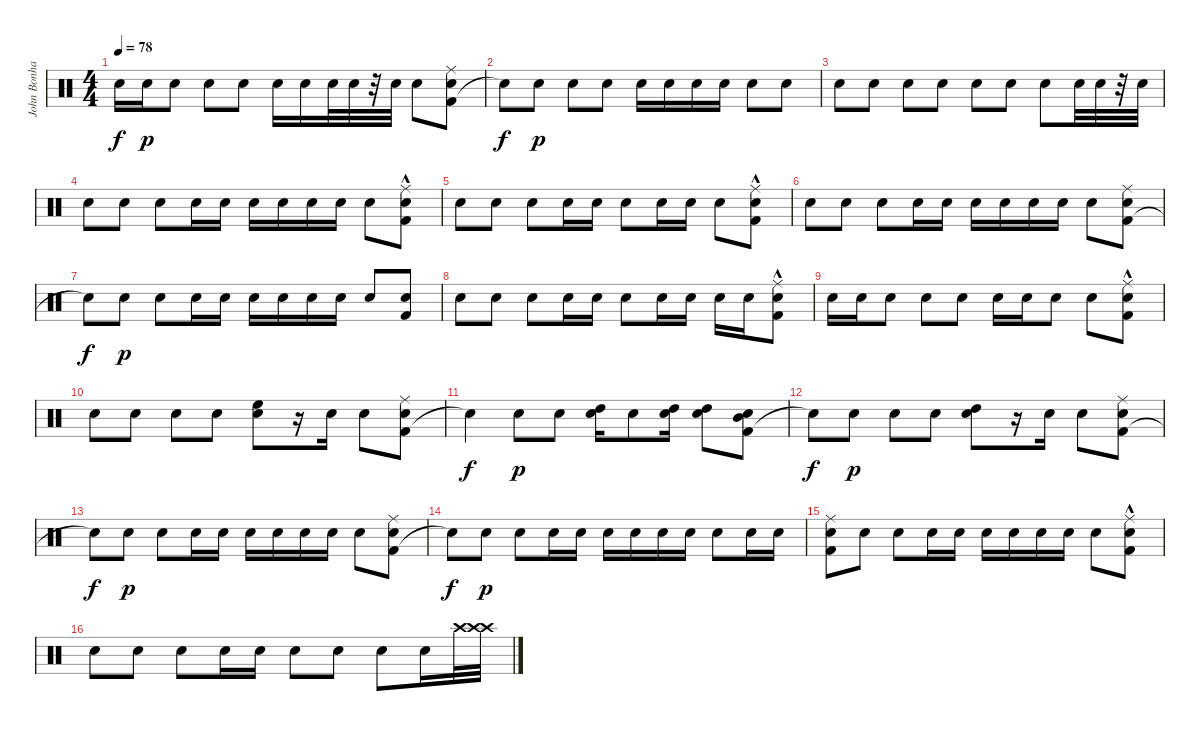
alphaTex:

\track ("John Bonham (Drums)" "John Bonha") {instrument percussion}
\staff {score}
\articulation defaults
\ts (4 4)
\tempo 78
\clef neutral
\ks c "Snare (hit)"{t}.16{dy f} "Snare (hit) 2".16{dy p} "Snare (hit) 2".8 "Snare (hit) 2".8 "Snare (hit) 2".8 "Snare (hit) 2".16 "Snare (hit) 2".16 "Snare (hit) 2".32 "Snare (hit) 2".32
r.32 "Snare (hit) 2".32 "Snare (hit) 2".8 ("Kick (hit) 2" "Snare (hit) 2" "Ride (middle)").8 |
"Snare (hit)"{t}.8{dy f} "Snare (hit) 2".8{dy p} "Snare (hit) 2".8 "Snare (hit) 2".8 "Snare (hit) 2".16 "Snare (hit) 2".16 "Snare (hit) 2".16 "Snare (hit) 2".16 "Snare (hit) 2".8 "Snare (hit) 2".8 |
"Snare (hit) 2".8 "Snare (hit) 2".8 "Snare (hit) 2".8 "Snare (hit) 2".8 "Snare (hit) 2".8 "Snare (hit) 2".8 "Snare (hit) 2".8 "Snare (hit) 2".32 "Snare (hit) 2".32 r.32 "Snare (hit) 2".32 |
"Snare (hit) 2".8 "Snare (hit) 2".8 "Snare (hit) 2".8 "Snare (hit) 2".16 "Snare (hit) 2".16 "Snare (hit) 2".16 "Snare (hit) 2".16 "Snare (hit) 2".16 "Snare (hit) 2".16 "Snare (hit) 2".8 ("Kick (hit) 2" "Snare (hit) 2" "Ride (middle)"{hac}).8 |
"Snare (hit) 2".8 "Snare (hit) 2".8 "Snare (hit) 2".8 "Snare (hit) 2".16 "Snare (hit) 2".16 "Snare (hit) 2".8 "Snare (hit) 2".16 "Snare (hit) 2".16 "Snare (hit) 2".8 ("Kick (hit) 2" "Snare (hit) 2" "Ride (middle)"{hac}).8 |
"Snare (hit) 2".8 "Snare (hit) 2".8 "Snare (hit) 2".8 "Snare (hit) 2".16 "Snare (hit) 2".16 "Snare (hit) 2".16 "Snare (hit) 2".16 "Snare (hit) 2".16 "Snare (hit) 2".16 "Snare (hit) 2".8 ("Kick (hit) 2" "Snare (hit) 2" "Ride (middle)").8 |
"Snare (hit)"{t}.8{dy f} "Snare (hit) 2".8{dy p} "Snare (hit) 2".8 "Snare (hit) 2".16 "Snare (hit) 2".16 "Snare (hit) 2".16 "Snare (hit) 2".16 "Snare (hit) 2".16 "Snare (hit) 2".16 "Snare (hit) 2".8 ("Kick (hit) 2" "Snare (hit) 2").8 |
"Snare (hit) 2".8 "Snare (hit) 2".8 "Snare (hit) 2".8 "Snare (hit) 2".16 "Snare (hit) 2".16 "Snare (hit) 2".8 "Snare (hit) 2".16 "Snare (hit) 2".16 "Snare (hit) 2".16 "Snare (hit) 2".16 ("Kick (hit) 2" "Snare (hit) 2" "Ride (middle)"{hac}).8 |
"Snare (hit) 2".16 "Snare (hit) 2".16 "Snare (hit) 2".8 "Snare (hit) 2".8 "Snare (hit) 2".8 "Snare (hit) 2".16 "Snare (hit) 2".16 "Snare (hit) 2".8 "Snare (hit) 2".8 ("Kick (hit) 2" "Snare (hit) 2" "Ride (middle)"{hac}).8 |
"Snare (hit) 2".8 "Snare (hit) 2".8 "Snare (hit) 2".8 "Snare (hit) 2".8 ("Snare (hit) 2" "High Floor Tom (hit)").8 r.16 "Snare (hit) 2".16 "Snare (hit) 2".8 ("Kick (hit) 2" "Snare (hit) 2" "Ride (middle)").8 |
"Snare (hit)"{t}.4{dy f} "Snare (hit) 2".8{dy p} "Snare (hit) 2".8 ("Snare (hit) 2" "High Tom (hit)").16 "Snare (hit) 2".8 ("Snare (hit) 2" "High Tom (hit)").16 ("Snare (hit) 2" "High Tom (hit)").8 ("Kick (hit) 2" "Snare (hit) 2" "Mid Tom (hit)").8 |
"Snare (hit)"{t}.8{dy f} "Snare (hit) 2".8{dy p} "Snare (hit) 2".8 "Snare (hit) 2".8 ("Snare (hit) 2" "High Tom (hit)").8 r.16 "Snare (hit) 2".16 "Snare (hit) 2".8 ("Kick (hit) 2" "Snare (hit) 2" "Ride (middle)").8 |
"Snare (hit)"{t}.8{dy f} "Snare (hit) 2".8{dy p} "Snare (hit) 2".8 "Snare (hit) 2".16 "Snare (hit) 2".16 "Snare (hit) 2".16 "Snare (hit) 2".16 "Snare (hit) 2".16 "Snare (hit) 2".16 "Snare (hit) 2".8 ("Kick (hit) 2" "Snare (hit) 2" "Ride (middle)").8 |
"Snare (hit)"{t}.8{dy f} "Snare (hit) 2".8{dy p} "Snare (hit) 2".8 "Snare (hit) 2".16 "Snare (hit) 2".16 "Snare (hit) 2".16 "Snare (hit) 2".16 "Snare (hit) 2".16 "Snare (hit) 2".16 "Snare (hit) 2".8 "Snare (hit) 2".16 "Snare (hit) 2".16 |
("Kick (hit) 2" "Snare (hit) 2" "Ride (middle)").8 "Snare (hit) 2".8 "Snare (hit) 2".8 "Snare (hit) 2".16 "Snare (hit) 2".16 "Snare (hit) 2".16 "Snare (hit) 2".16 "Snare (hit) 2".16 "Snare (hit) 2".16 "Snare (hit) 2".8 ("Kick (hit) 2" "Snare (hit) 2" "Ride (middle)"{hac}).8 |
"Snare (hit) 2".8 "Snare (hit) 2".8 "Snare (hit) 2".8 "Snare (hit) 2".16 "Snare (hit) 2".16 "Snare (hit) 2".8 "Snare (hit) 2".8 "Snare (hit) 2".8 "Snare (hit) 2".16 "Crash high (hit)".32 ("Crash high (hit)" "Crash high (hit)").32
